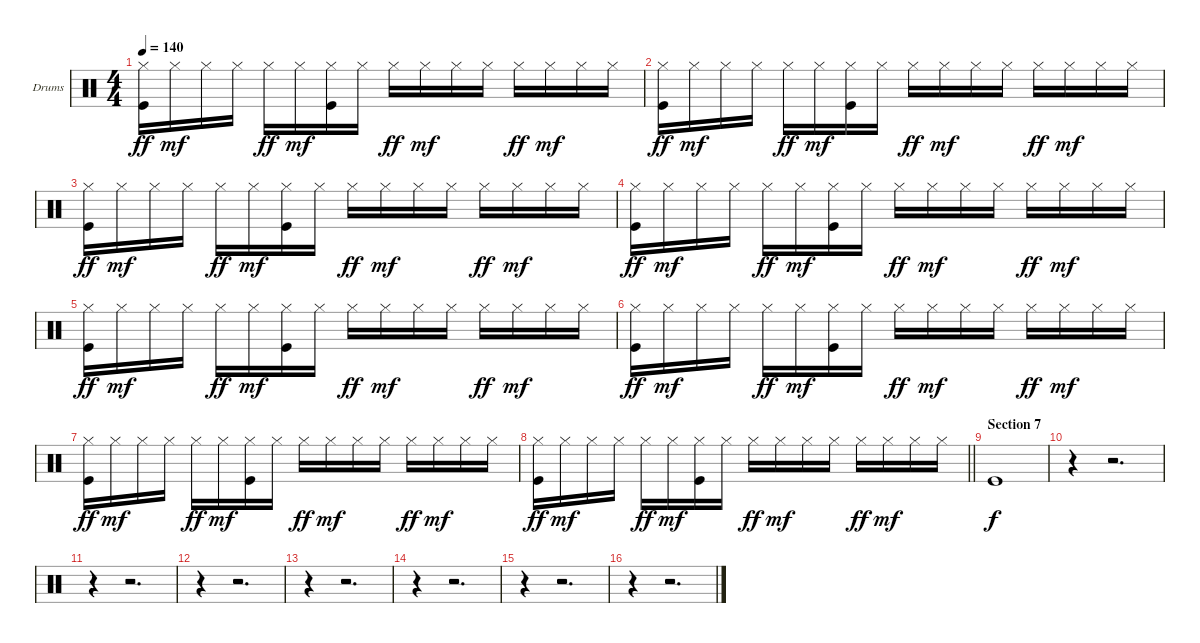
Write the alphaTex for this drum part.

\bracketExtendMode groupsimilarinstruments
\firstSystemTrackNameOrientation horizontal
\otherSystemsTrackNameOrientation horizontal
\track ("Drumkit" "Drums") {instrument percussion}
\staff {score}
\articulation defaults
\ts (4 4)
\tempo 140
\clef neutral
\ks c
("Hi-Hat (closed)" "Kick (hit)").16{dy ff} "Hi-Hat (closed)".16{dy mf} "Hi-Hat (closed)".16 "Hi-Hat (closed)".16 "Hi-Hat (closed)".16{dy ff} "Hi-Hat (closed)".16{dy mf} ("Hi-Hat (closed)" "Kick (hit)").16 "Hi-Hat (closed)".16 "Hi-Hat (closed)".16{dy ff} "Hi-Hat (closed)".16{dy mf} "Hi-Hat (closed)".16 "Hi-Hat (closed)".16 "Hi-Hat (closed)".16{dy ff} "Hi-Hat (closed)".16{dy mf} "Hi-Hat (closed)".16 "Hi-Hat (closed)".16 |
("Hi-Hat (closed)" "Kick (hit)").16{dy ff} "Hi-Hat (closed)".16{dy mf} "Hi-Hat (closed)".16 "Hi-Hat (closed)".16 "Hi-Hat (closed)".16{dy ff} "Hi-Hat (closed)".16{dy mf} ("Hi-Hat (closed)" "Kick (hit)").16 "Hi-Hat (closed)".16 "Hi-Hat (closed)".16{dy ff} "Hi-Hat (closed)".16{dy mf} "Hi-Hat (closed)".16 "Hi-Hat (closed)".16 "Hi-Hat (closed)".16{dy ff} "Hi-Hat (closed)".16{dy mf} "Hi-Hat (closed)".16 "Hi-Hat (closed)".16 |
("Hi-Hat (closed)" "Kick (hit)").16{dy ff} "Hi-Hat (closed)".16{dy mf} "Hi-Hat (closed)".16 "Hi-Hat (closed)".16 "Hi-Hat (closed)".16{dy ff} "Hi-Hat (closed)".16{dy mf} ("Hi-Hat (closed)" "Kick (hit)").16 "Hi-Hat (closed)".16 "Hi-Hat (closed)".16{dy ff} "Hi-Hat (closed)".16{dy mf} "Hi-Hat (closed)".16 "Hi-Hat (closed)".16 "Hi-Hat (closed)".16{dy ff} "Hi-Hat (closed)".16{dy mf} "Hi-Hat (closed)".16 "Hi-Hat (closed)".16 |
("Hi-Hat (closed)" "Kick (hit)").16{dy ff} "Hi-Hat (closed)".16{dy mf} "Hi-Hat (closed)".16 "Hi-Hat (closed)".16 "Hi-Hat (closed)".16{dy ff} "Hi-Hat (closed)".16{dy mf} ("Hi-Hat (closed)" "Kick (hit)").16 "Hi-Hat (closed)".16 "Hi-Hat (closed)".16{dy ff} "Hi-Hat (closed)".16{dy mf} "Hi-Hat (closed)".16 "Hi-Hat (closed)".16 "Hi-Hat (closed)".16{dy ff} "Hi-Hat (closed)".16{dy mf} "Hi-Hat (closed)".16 "Hi-Hat (closed)".16 |
("Hi-Hat (closed)" "Kick (hit)").16{dy ff} "Hi-Hat (closed)".16{dy mf} "Hi-Hat (closed)".16 "Hi-Hat (closed)".16 "Hi-Hat (closed)".16{dy ff} "Hi-Hat (closed)".16{dy mf} ("Hi-Hat (closed)" "Kick (hit)").16 "Hi-Hat (closed)".16 "Hi-Hat (closed)".16{dy ff} "Hi-Hat (closed)".16{dy mf} "Hi-Hat (closed)".16 "Hi-Hat (closed)".16 "Hi-Hat (closed)".16{dy ff} "Hi-Hat (closed)".16{dy mf} "Hi-Hat (closed)".16 "Hi-Hat (closed)".16 |
("Hi-Hat (closed)" "Kick (hit)").16{dy ff} "Hi-Hat (closed)".16{dy mf} "Hi-Hat (closed)".16 "Hi-Hat (closed)".16 "Hi-Hat (closed)".16{dy ff} "Hi-Hat (closed)".16{dy mf} ("Hi-Hat (closed)" "Kick (hit)").16 "Hi-Hat (closed)".16 "Hi-Hat (closed)".16{dy ff} "Hi-Hat (closed)".16{dy mf} "Hi-Hat (closed)".16 "Hi-Hat (closed)".16 "Hi-Hat (closed)".16{dy ff} "Hi-Hat (closed)".16{dy mf} "Hi-Hat (closed)".16 "Hi-Hat (closed)".16 |
("Hi-Hat (closed)" "Kick (hit)").16{dy ff} "Hi-Hat (closed)".16{dy mf} "Hi-Hat (closed)".16 "Hi-Hat (closed)".16 "Hi-Hat (closed)".16{dy ff} "Hi-Hat (closed)".16{dy mf} ("Hi-Hat (closed)" "Kick (hit)").16 "Hi-Hat (closed)".16 "Hi-Hat (closed)".16{dy ff} "Hi-Hat (closed)".16{dy mf} "Hi-Hat (closed)".16 "Hi-Hat (closed)".16 "Hi-Hat (closed)".16{dy ff} "Hi-Hat (closed)".16{dy mf} "Hi-Hat (closed)".16 "Hi-Hat (closed)".16 |
\barLineRight lightlight
("Hi-Hat (closed)" "Kick (hit)").16{dy ff} "Hi-Hat (closed)".16{dy mf} "Hi-Hat (closed)".16 "Hi-Hat (closed)".16 "Hi-Hat (closed)".16{dy ff} "Hi-Hat (closed)".16{dy mf} ("Hi-Hat (closed)" "Kick (hit)").16 "Hi-Hat (closed)".16 "Hi-Hat (closed)".16{dy ff} "Hi-Hat (closed)".16{dy mf} "Hi-Hat (closed)".16 "Hi-Hat (closed)".16 "Hi-Hat (closed)".16{dy ff} "Hi-Hat (closed)".16{dy mf} "Hi-Hat (closed)".16 "Hi-Hat (closed)".16 |
\section ("" "Section 7")
"Kick (hit)".1{dy f} |
r.4 r.2{d} |
r.4 r.2{d} |
r.4 r.2{d} |
r.4 r.2{d} |
r.4 r.2{d} |
r.4 r.2{d} |
r.4 r.2{d}
